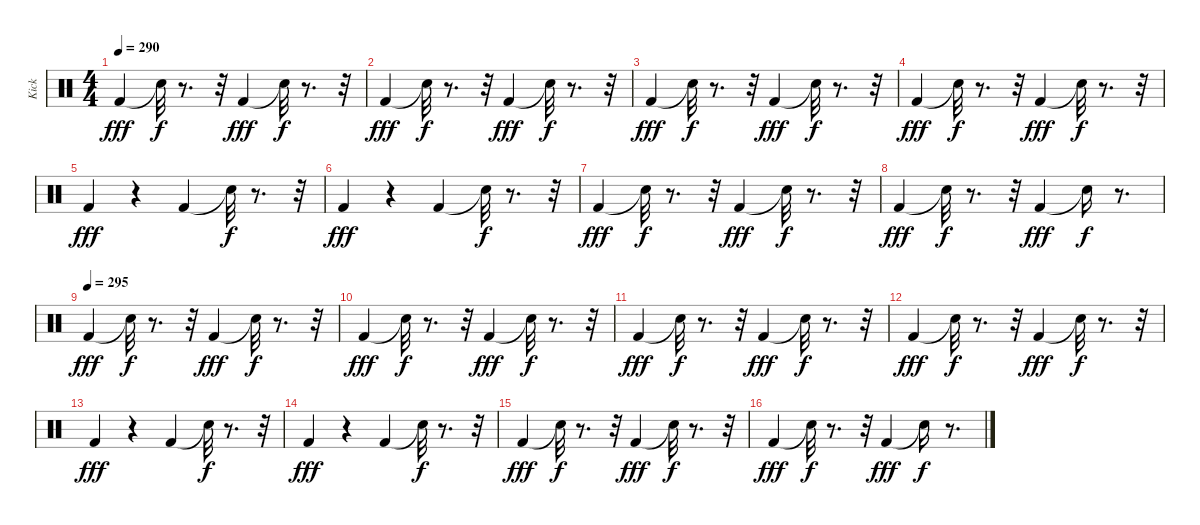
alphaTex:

\track ("Kick" "Kick") {instrument percussion}
\staff {score}
\articulation defaults
\ts (4 4)
\tempo 290
\clef neutral
\ks c "Kick (hit) 2".4{dy fff} "Snare (hit)"{t}.32{dy f}
r.8{d} r.32 "Kick (hit) 2".4{dy fff} "Snare (hit)"{t}.32{dy f} r.8{d} r.32 |
"Kick (hit) 2".4{dy fff} "Snare (hit)"{t}.32{dy f} r.8{d} r.32 "Kick (hit) 2".4{dy fff} "Snare (hit)"{t}.32{dy f} r.8{d} r.32 |
"Kick (hit) 2".4{dy fff} "Snare (hit)"{t}.32{dy f} r.8{d} r.32 "Kick (hit) 2".4{dy fff} "Snare (hit)"{t}.32{dy f} r.8{d} r.32 |
"Kick (hit) 2".4{dy fff} "Snare (hit)"{t}.32{dy f} r.8{d} r.32 "Kick (hit) 2".4{dy fff} "Snare (hit)"{t}.32{dy f} r.8{d} r.32 |
"Kick (hit) 2".4{dy fff} r.4 "Kick (hit) 2".4 "Snare (hit)"{t}.32{dy f} r.8{d} r.32 |
"Kick (hit) 2".4{dy fff} r.4 "Kick (hit) 2".4 "Snare (hit)"{t}.32{dy f} r.8{d} r.32 |
"Kick (hit) 2".4{dy fff} "Snare (hit)"{t}.32{dy f} r.8{d} r.32 "Kick (hit) 2".4{dy fff} "Snare (hit)"{t}.32{dy f} r.8{d} r.32 |
"Kick (hit) 2".4{dy fff} "Snare (hit)"{t}.32{dy f} r.8{d} r.32 "Kick (hit) 2".4{dy fff} "Snare (hit)"{t}.16{dy f} r.8{d} |
\tempo (295)
"Kick (hit) 2".4{dy fff} "Snare (hit)"{t}.32{dy f} r.8{d} r.32 "Kick (hit) 2".4{dy fff} "Snare (hit)"{t}.32{dy f} r.8{d} r.32 |
"Kick (hit) 2".4{dy fff} "Snare (hit)"{t}.32{dy f} r.8{d} r.32 "Kick (hit) 2".4{dy fff} "Snare (hit)"{t}.32{dy f} r.8{d} r.32 |
"Kick (hit) 2".4{dy fff} "Snare (hit)"{t}.32{dy f} r.8{d} r.32 "Kick (hit) 2".4{dy fff} "Snare (hit)"{t}.32{dy f} r.8{d} r.32 |
"Kick (hit) 2".4{dy fff} "Snare (hit)"{t}.32{dy f} r.8{d} r.32 "Kick (hit) 2".4{dy fff} "Snare (hit)"{t}.32{dy f} r.8{d} r.32 |
"Kick (hit) 2".4{dy fff} r.4 "Kick (hit) 2".4 "Snare (hit)"{t}.32{dy f} r.8{d} r.32 |
"Kick (hit) 2".4{dy fff} r.4 "Kick (hit) 2".4 "Snare (hit)"{t}.32{dy f} r.8{d} r.32 |
"Kick (hit) 2".4{dy fff} "Snare (hit)"{t}.32{dy f} r.8{d} r.32 "Kick (hit) 2".4{dy fff} "Snare (hit)"{t}.32{dy f} r.8{d} r.32 |
"Kick (hit) 2".4{dy fff} "Snare (hit)"{t}.32{dy f} r.8{d} r.32 "Kick (hit) 2".4{dy fff} "Snare (hit)"{t}.16{dy f} r.8{d}
